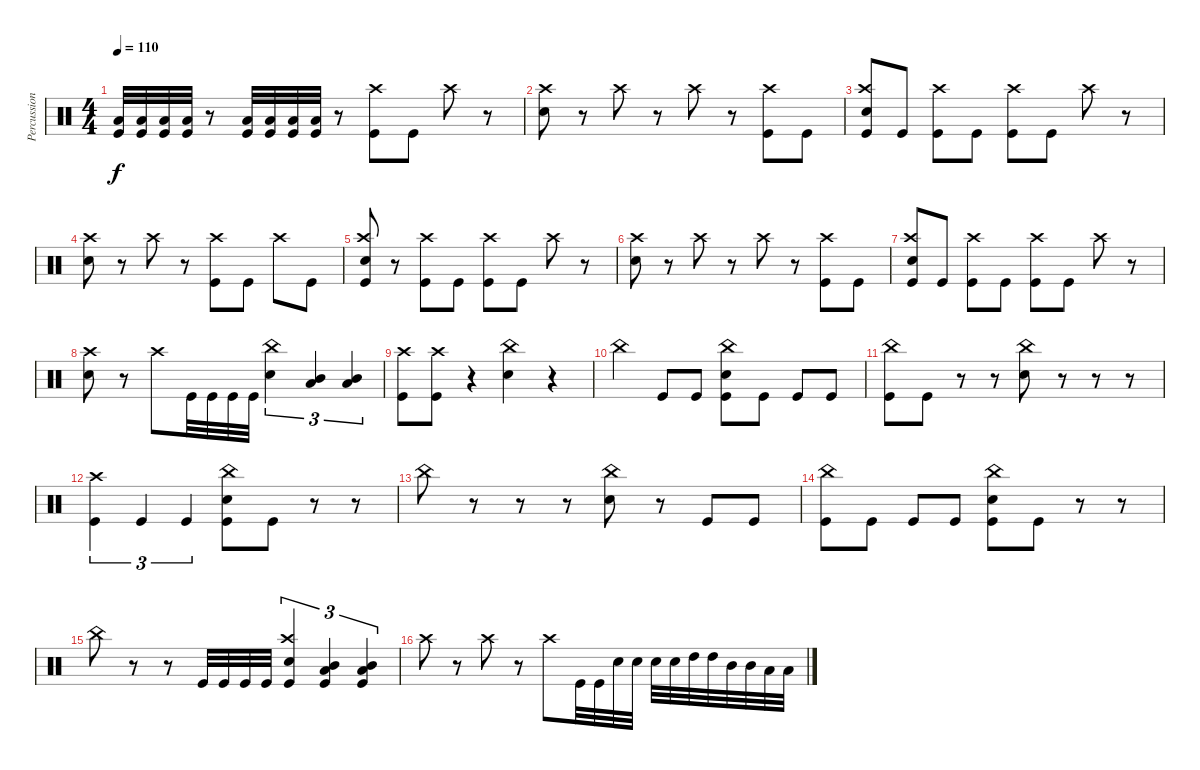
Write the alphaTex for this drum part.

\track ("Percussion" "Percussion") {instrument percussion}
\staff {score}
\articulation defaults
\ts (4 4)
\tempo 110
\clef neutral
\ks c
("Low Floor Tom (hit)" "Kick (hit)").32{dy f} ("Low Floor Tom (hit)" "Kick (hit)").32 ("Low Floor Tom (hit)" "Kick (hit)").32 ("Low Floor Tom (hit)" "Kick (hit)").32 r.8 ("Low Floor Tom (hit)" "Kick (hit)").32 ("Low Floor Tom (hit)" "Kick (hit)").32 ("Low Floor Tom (hit)" "Kick (hit)").32 ("Low Floor Tom (hit)" "Kick (hit)").32 r.8 ("Crash high (hit)" "Kick (hit)").8 "Kick (hit)".8 "Crash high (hit)".8 r.8 |
("Crash high (hit)" "Snare (hit) 2").8 r.8 "Crash high (hit)".8 r.8 "Crash high (hit)".8 r.8 ("Crash high (hit)" "Kick (hit)").8 "Kick (hit)".8 |
("Crash high (hit)" "Snare (hit) 2" "Kick (hit)").8 "Kick (hit)".8 ("Crash high (hit)" "Kick (hit)").8 "Kick (hit)".8 ("Crash high (hit)" "Kick (hit)").8 "Kick (hit)".8 "Crash high (hit)".8 r.8 |
("Crash high (hit)" "Snare (hit) 2").8 r.8 "Crash high (hit)".8 r.8 ("Crash high (hit)" "Kick (hit)").8 "Kick (hit)".8 "Crash high (hit)".8 "Kick (hit)".8 |
("Crash high (hit)" "Snare (hit) 2" "Kick (hit)").8 r.8 ("Crash high (hit)" "Kick (hit)").8 "Kick (hit)".8 ("Crash high (hit)" "Kick (hit)").8 "Kick (hit)".8 "Crash high (hit)".8 r.8 |
("Crash high (hit)" "Snare (hit) 2").8 r.8 "Crash high (hit)".8 r.8 "Crash high (hit)".8 r.8 ("Crash high (hit)" "Kick (hit)").8 "Kick (hit)".8 |
("Crash high (hit)" "Snare (hit) 2" "Kick (hit)").8 "Kick (hit)".8 ("Crash high (hit)" "Kick (hit)").8 "Kick (hit)".8 ("Crash high (hit)" "Kick (hit)").8 "Kick (hit)".8 "Crash high (hit)".8 r.8 |
("Crash high (hit)" "Snare (hit) 2").8 r.8 "Crash high (hit)".8 "Kick (hit)".32 "Kick (hit)".32 "Kick (hit)".32 "Kick (hit)".32 ("China (hit)" "Snare (hit) 2").4{tu (3 2)} ("Low Floor Tom (hit)" "Mid Tom (hit)").4{tu (3 2)} ("Low Floor Tom (hit)" "Mid Tom (hit)").4{tu (3 2)} |
("Crash high (hit)" "Kick (hit)").8 ("Crash high (hit)" "Kick (hit)").8 r.4 ("China (hit)" "Snare (hit) 2").4 r.4 |
"China (hit)".4 "Kick (hit)".8 "Kick (hit)".8 ("China (hit)" "Snare (hit) 2" "Kick (hit)").8 "Kick (hit)".8 "Kick (hit)".8 "Kick (hit)".8 |
("China (hit)" "Kick (hit)").8 "Kick (hit)".8 r.8 r.8 ("China (hit)" "Snare (hit) 2").8 r.8 r.8 r.8 |
("Crash high (hit)" "Kick (hit)").4{tu (3 2)} "Kick (hit)".4{tu (3 2)} "Kick (hit)".4{tu (3 2)} ("China (hit)" "Snare (hit) 2" "Kick (hit)").8 "Kick (hit)".8 r.8 r.8 |
"China (hit)".8 r.8 r.8 r.8 ("China (hit)" "Snare (hit) 2").8 r.8 "Kick (hit)".8 "Kick (hit)".8 |
("China (hit)" "Kick (hit)").8 "Kick (hit)".8 "Kick (hit)".8 "Kick (hit)".8 ("China (hit)" "Snare (hit) 2" "Kick (hit)").8 "Kick (hit)".8 r.8 r.8 |
"China (hit)".8 r.8 r.8 "Kick (hit)".32 "Kick (hit)".32 "Kick (hit)".32 "Kick (hit)".32 ("Crash high (hit)" "Snare (hit) 2" "Kick (hit)").4{tu (3 2)} ("Mid Tom (hit)" "Low Floor Tom (hit)" "Kick (hit)").4{tu (3 2)} ("Mid Tom (hit)" "Low Floor Tom (hit)" "Kick (hit)").4{tu (3 2)} |
"Crash high (hit)".8 r.8 "Crash high (hit)".8 r.8 "Crash high (hit)".8 "Kick (hit)".32 "Kick (hit)".32 "Snare (hit) 2".32 "Snare (hit) 2".32 "Snare (hit) 2".32 "Snare (hit) 2".32 "High Tom (hit)".32 "High Tom (hit)".32 "Mid Tom (hit)".32 "Mid Tom (hit)".32 "Low Tom (hit)".32 "Low Tom (hit)".32
